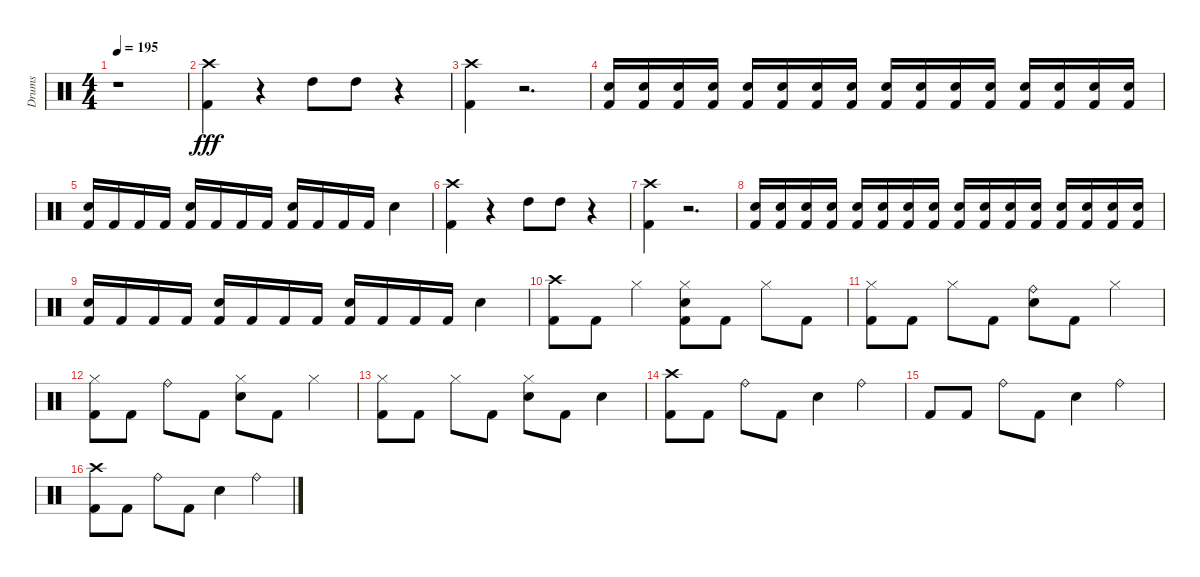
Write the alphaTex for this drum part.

\track ("Drums" "Drums") {instrument percussion}
\staff {score}
\articulation defaults
\ts (4 4)
\tempo 195
\clef neutral
\ks c
r.1{dy fff} |
("Kick (hit) 2" "Crash high (hit)").4 r.4 "High Tom (hit)".8 "High Tom (hit)".8 r.4 |
("Kick (hit) 2" "Crash high (hit)").4 r.2{d} |
("Metronome (bell)" "Kick (hit) 2").16 ("Metronome (bell)" "Kick (hit) 2").16 ("Metronome (bell)" "Kick (hit) 2").16 ("Metronome (bell)" "Kick (hit) 2").16 ("Metronome (bell)" "Kick (hit) 2").16 ("Metronome (bell)" "Kick (hit) 2").16 ("Metronome (bell)" "Kick (hit) 2").16 ("Metronome (bell)" "Kick (hit) 2").16 ("Metronome (bell)" "Kick (hit) 2").16 ("Metronome (bell)" "Kick (hit) 2").16 ("Metronome (bell)" "Kick (hit) 2").16 ("Metronome (bell)" "Kick (hit) 2").16 ("Metronome (bell)" "Kick (hit) 2").16 ("Metronome (bell)" "Kick (hit) 2").16 ("Metronome (bell)" "Kick (hit) 2").16 ("Metronome (bell)" "Kick (hit) 2").16 |
("Metronome (bell)" "Kick (hit) 2").16 "Kick (hit) 2".16 "Kick (hit) 2".16 "Kick (hit) 2".16 ("Metronome (bell)" "Kick (hit) 2").16 "Kick (hit) 2".16 "Kick (hit) 2".16 "Kick (hit) 2".16 ("Metronome (bell)" "Kick (hit) 2").16 "Kick (hit) 2".16 "Kick (hit) 2".16 "Kick (hit) 2".16 "Metronome (bell)".4 |
("Kick (hit) 2" "Crash high (hit)").4 r.4 "High Tom (hit)".8 "High Tom (hit)".8 r.4 |
("Kick (hit) 2" "Crash high (hit)").4 r.2{d} |
("Metronome (bell)" "Kick (hit) 2").16 ("Metronome (bell)" "Kick (hit) 2").16 ("Metronome (bell)" "Kick (hit) 2").16 ("Metronome (bell)" "Kick (hit) 2").16 ("Metronome (bell)" "Kick (hit) 2").16 ("Metronome (bell)" "Kick (hit) 2").16 ("Metronome (bell)" "Kick (hit) 2").16 ("Metronome (bell)" "Kick (hit) 2").16 ("Metronome (bell)" "Kick (hit) 2").16 ("Metronome (bell)" "Kick (hit) 2").16 ("Metronome (bell)" "Kick (hit) 2").16 ("Metronome (bell)" "Kick (hit) 2").16 ("Metronome (bell)" "Kick (hit) 2").16 ("Metronome (bell)" "Kick (hit) 2").16 ("Metronome (bell)" "Kick (hit) 2").16 ("Metronome (bell)" "Kick (hit) 2").16 |
("Metronome (bell)" "Kick (hit) 2").16 "Kick (hit) 2".16 "Kick (hit) 2".16 "Kick (hit) 2".16 ("Metronome (bell)" "Kick (hit) 2").16 "Kick (hit) 2".16 "Kick (hit) 2".16 "Kick (hit) 2".16 ("Metronome (bell)" "Kick (hit) 2").16 "Kick (hit) 2".16 "Kick (hit) 2".16 "Kick (hit) 2".16 "Metronome (bell)".4 |
("Kick (hit) 2" "Crash high (hit)").8 "Kick (hit) 2".8 "Hi-Hat (closed)".4 ("Metronome (bell)" "Kick (hit) 2" "Hi-Hat (closed)").8 "Kick (hit) 2".8 "Hi-Hat (closed)".8 "Kick (hit) 2".8 |
("Kick (hit) 2" "Hi-Hat (closed)").8 "Kick (hit) 2".8 "Hi-Hat (closed)".8 "Kick (hit) 2".8 ("Metronome (bell)" "Ride (bell)").8 "Kick (hit) 2".8 "Hi-Hat (closed)".4 |
("Kick (hit) 2" "Hi-Hat (closed)").8 "Kick (hit) 2".8 "Ride (bell)".8 "Kick (hit) 2".8 ("Metronome (bell)" "Hi-Hat (closed)").8 "Kick (hit) 2".8 "Hi-Hat (closed)".4 |
("Kick (hit) 2" "Hi-Hat (closed)").8 "Kick (hit) 2".8 "Hi-Hat (closed)".8 "Kick (hit) 2".8 ("Metronome (bell)" "Hi-Hat (closed)").8 "Kick (hit) 2".8 "Metronome (bell)".4 |
("Kick (hit) 2" "Crash high (hit)").8 "Kick (hit) 2".8 "Ride (bell)".8 "Kick (hit) 2".8 "Metronome (bell)".4 "Ride (bell)".4 |
"Kick (hit) 2".8 "Kick (hit) 2".8 "Ride (bell)".8 "Kick (hit) 2".8 "Metronome (bell)".4 "Ride (bell)".4 |
("Kick (hit) 2" "Crash high (hit)").8 "Kick (hit) 2".8 "Ride (bell)".8 "Kick (hit) 2".8 "Metronome (bell)".4 "Ride (bell)".4
